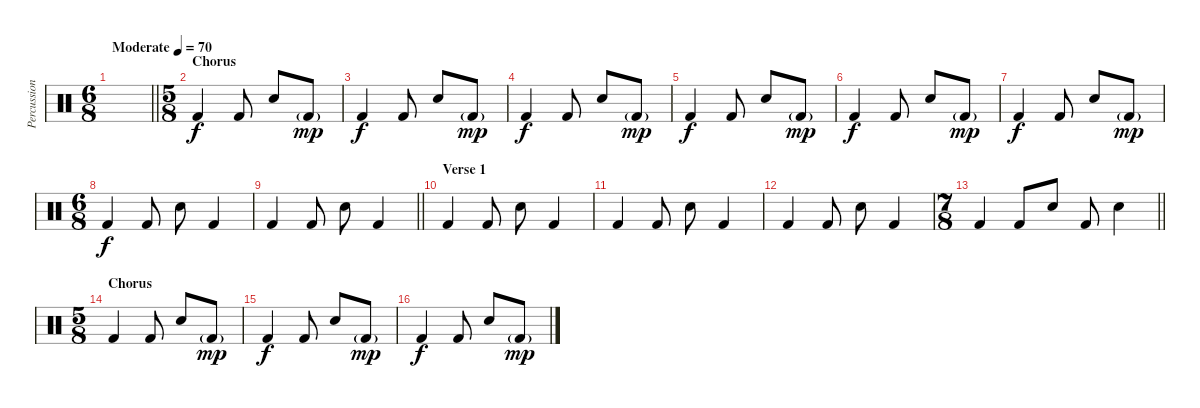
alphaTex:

\track ("Percussion" "Percussion") {instrument percussion}
\staff {score}
\articulation defaults
\ts (6 8)
\tempo (70 "Moderate")
\clef neutral
\barLineRight lightlight
\ks c
|
\ts (5 8)
\section ("" "Chorus")
"Kick (hit) 2".4 "Kick (hit) 2".8 "Snare (hit) 2".8 "Kick (hit) 2"{g}.8{dy mp} |
"Kick (hit) 2".4{dy f} "Kick (hit) 2".8 "Snare (hit) 2".8 "Kick (hit) 2"{g}.8{dy mp} |
"Kick (hit) 2".4{dy f} "Kick (hit) 2".8 "Snare (hit) 2".8 "Kick (hit) 2"{g}.8{dy mp} |
"Kick (hit) 2".4{dy f} "Kick (hit) 2".8 "Snare (hit) 2".8 "Kick (hit) 2"{g}.8{dy mp} |
"Kick (hit) 2".4{dy f} "Kick (hit) 2".8 "Snare (hit) 2".8 "Kick (hit) 2"{g}.8{dy mp} |
"Kick (hit) 2".4{dy f} "Kick (hit) 2".8 "Snare (hit) 2".8 "Kick (hit) 2"{g}.8{dy mp} |
\ts (6 8)
"Kick (hit) 2".4{dy f} "Kick (hit) 2".8 "Snare (hit) 2".8 "Kick (hit) 2".4 |
\barLineRight lightlight "Kick (hit) 2".4 "Kick (hit) 2".8 "Snare (hit) 2".8 "Kick (hit) 2".4
|
\section ("" "Verse 1")
"Kick (hit) 2".4 "Kick (hit) 2".8 "Snare (hit) 2".8 "Kick (hit) 2".4 |
"Kick (hit) 2".4 "Kick (hit) 2".8 "Snare (hit) 2".8 "Kick (hit) 2".4 |
"Kick (hit) 2".4 "Kick (hit) 2".8 "Snare (hit) 2".8 "Kick (hit) 2".4 |
\ts (7 8)
\barLineRight lightlight "Kick (hit) 2".4 "Kick (hit) 2".8 "Snare (hit) 2".8 "Kick (hit) 2".8 "Snare (hit) 2".4
|
\ts (5 8)
\section ("" "Chorus")
"Kick (hit) 2".4 "Kick (hit) 2".8 "Snare (hit) 2".8 "Kick (hit) 2"{g}.8{dy mp} |
"Kick (hit) 2".4{dy f} "Kick (hit) 2".8 "Snare (hit) 2".8 "Kick (hit) 2"{g}.8{dy mp} |
"Kick (hit) 2".4{dy f} "Kick (hit) 2".8 "Snare (hit) 2".8 "Kick (hit) 2"{g}.8{dy mp}
